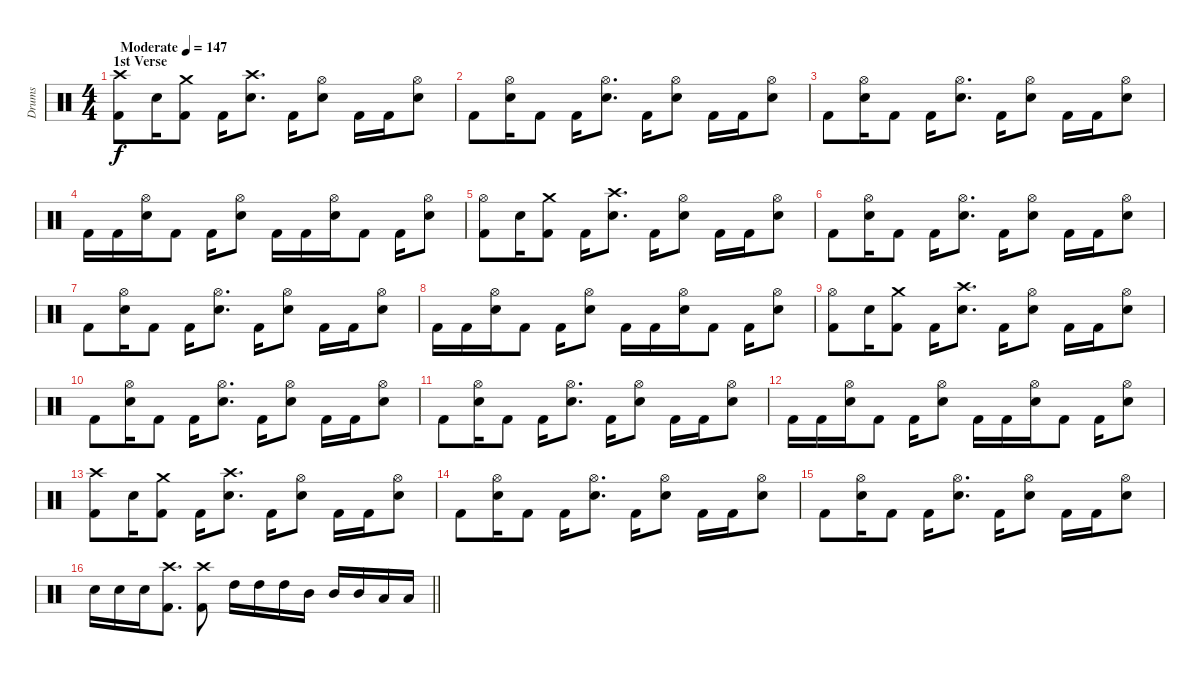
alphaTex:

\track ("Drums" "Drums") {instrument percussion}
\staff {score}
\articulation defaults
\ts (4 4)
\section ("" "1st Verse")
\tempo (147 "Moderate")
\clef neutral
\ks c
("Crash high (hit)" "Kick (hit) 2").8{dy f} "Snare (hit) 2".16 ("Crash medium (hit)" "Kick (hit) 2").8 "Kick (hit) 2".16 ("Crash high (hit)" "Snare (hit) 2").8{d} "Kick (hit) 2".16 ("Hi-Hat (open)" "Snare (hit) 2").8 "Kick (hit) 2".16 "Kick (hit) 2".16 ("Hi-Hat (open)" "Snare (hit) 2").8 |
"Kick (hit) 2".8 ("Hi-Hat (open)" "Snare (hit) 2").16 "Kick (hit) 2".8 "Kick (hit) 2".16 ("Hi-Hat (open)" "Snare (hit) 2").8{d} "Kick (hit) 2".16 ("Hi-Hat (open)" "Snare (hit) 2").8 "Kick (hit) 2".16 "Kick (hit) 2".16 ("Hi-Hat (open)" "Snare (hit) 2").8 |
"Kick (hit) 2".8 ("Hi-Hat (open)" "Snare (hit) 2").16 "Kick (hit) 2".8 "Kick (hit) 2".16 ("Hi-Hat (open)" "Snare (hit) 2").8{d} "Kick (hit) 2".16 ("Hi-Hat (open)" "Snare (hit) 2").8 "Kick (hit) 2".16 "Kick (hit) 2".16 ("Hi-Hat (open)" "Snare (hit) 2").8 |
"Kick (hit) 2".16 "Kick (hit) 2".16 ("Hi-Hat (open)" "Snare (hit) 2").16 "Kick (hit) 2".8 "Kick (hit) 2".16 ("Hi-Hat (open)" "Snare (hit) 2").8 "Kick (hit) 2".16 "Kick (hit) 2".16 ("Hi-Hat (open)" "Snare (hit) 2").16 "Kick (hit) 2".8 "Kick (hit) 2".16 ("Hi-Hat (open)" "Snare (hit) 2").8 |
("Hi-Hat (open)" "Kick (hit) 2").8 "Snare (hit) 2".16 ("Crash medium (hit)" "Kick (hit) 2").8 "Kick (hit) 2".16 ("Crash high (hit)" "Snare (hit) 2").8{d} "Kick (hit) 2".16 ("Hi-Hat (open)" "Snare (hit) 2").8 "Kick (hit) 2".16 "Kick (hit) 2".16 ("Hi-Hat (open)" "Snare (hit) 2").8 |
"Kick (hit) 2".8 ("Hi-Hat (open)" "Snare (hit) 2").16 "Kick (hit) 2".8 "Kick (hit) 2".16 ("Hi-Hat (open)" "Snare (hit) 2").8{d} "Kick (hit) 2".16 ("Hi-Hat (open)" "Snare (hit) 2").8 "Kick (hit) 2".16 "Kick (hit) 2".16 ("Hi-Hat (open)" "Snare (hit) 2").8 |
"Kick (hit) 2".8 ("Hi-Hat (open)" "Snare (hit) 2").16 "Kick (hit) 2".8 "Kick (hit) 2".16 ("Hi-Hat (open)" "Snare (hit) 2").8{d} "Kick (hit) 2".16 ("Hi-Hat (open)" "Snare (hit) 2").8 "Kick (hit) 2".16 "Kick (hit) 2".16 ("Hi-Hat (open)" "Snare (hit) 2").8 |
"Kick (hit) 2".16 "Kick (hit) 2".16 ("Hi-Hat (open)" "Snare (hit) 2").16 "Kick (hit) 2".8 "Kick (hit) 2".16 ("Hi-Hat (open)" "Snare (hit) 2").8 "Kick (hit) 2".16 "Kick (hit) 2".16 ("Hi-Hat (open)" "Snare (hit) 2").16 "Kick (hit) 2".8 "Kick (hit) 2".16 ("Hi-Hat (open)" "Snare (hit) 2").8 |
("Hi-Hat (open)" "Kick (hit) 2").8 "Snare (hit) 2".16 ("Crash medium (hit)" "Kick (hit) 2").8 "Kick (hit) 2".16 ("Crash high (hit)" "Snare (hit) 2").8{d} "Kick (hit) 2".16 ("Hi-Hat (open)" "Snare (hit) 2").8 "Kick (hit) 2".16 "Kick (hit) 2".16 ("Hi-Hat (open)" "Snare (hit) 2").8 |
"Kick (hit) 2".8 ("Hi-Hat (open)" "Snare (hit) 2").16 "Kick (hit) 2".8 "Kick (hit) 2".16 ("Hi-Hat (open)" "Snare (hit) 2").8{d} "Kick (hit) 2".16 ("Hi-Hat (open)" "Snare (hit) 2").8 "Kick (hit) 2".16 "Kick (hit) 2".16 ("Hi-Hat (open)" "Snare (hit) 2").8 |
"Kick (hit) 2".8 ("Hi-Hat (open)" "Snare (hit) 2").16 "Kick (hit) 2".8 "Kick (hit) 2".16 ("Hi-Hat (open)" "Snare (hit) 2").8{d} "Kick (hit) 2".16 ("Hi-Hat (open)" "Snare (hit) 2").8 "Kick (hit) 2".16 "Kick (hit) 2".16 ("Hi-Hat (open)" "Snare (hit) 2").8 |
"Kick (hit) 2".16 "Kick (hit) 2".16 ("Hi-Hat (open)" "Snare (hit) 2").16 "Kick (hit) 2".8 "Kick (hit) 2".16 ("Hi-Hat (open)" "Snare (hit) 2").8 "Kick (hit) 2".16 "Kick (hit) 2".16 ("Hi-Hat (open)" "Snare (hit) 2").16 "Kick (hit) 2".8 "Kick (hit) 2".16 ("Hi-Hat (open)" "Snare (hit) 2").8 |
("Crash high (hit)" "Kick (hit) 2").8 "Snare (hit) 2".16 ("Crash medium (hit)" "Kick (hit) 2").8 "Kick (hit) 2".16 ("Crash high (hit)" "Snare (hit) 2").8{d} "Kick (hit) 2".16 ("Hi-Hat (open)" "Snare (hit) 2").8 "Kick (hit) 2".16 "Kick (hit) 2".16 ("Hi-Hat (open)" "Snare (hit) 2").8 |
"Kick (hit) 2".8 ("Hi-Hat (open)" "Snare (hit) 2").16 "Kick (hit) 2".8 "Kick (hit) 2".16 ("Hi-Hat (open)" "Snare (hit) 2").8{d} "Kick (hit) 2".16 ("Hi-Hat (open)" "Snare (hit) 2").8 "Kick (hit) 2".16 "Kick (hit) 2".16 ("Hi-Hat (open)" "Snare (hit) 2").8 |
"Kick (hit) 2".8 ("Hi-Hat (open)" "Snare (hit) 2").16 "Kick (hit) 2".8 "Kick (hit) 2".16 ("Hi-Hat (open)" "Snare (hit) 2").8{d} "Kick (hit) 2".16 ("Hi-Hat (open)" "Snare (hit) 2").8 "Kick (hit) 2".16 "Kick (hit) 2".16 ("Hi-Hat (open)" "Snare (hit) 2").8 |
\barLineRight lightlight "Snare (hit) 2".16 "Snare (hit) 2".16 "Snare (hit) 2".16
("Crash high (hit)" "Kick (hit) 2").8{d} ("Crash high (hit)" "Kick (hit) 2").8 "High Tom (hit)".16 "High Tom (hit)".16 "High Tom (hit)".16 "Mid Tom (hit)".16 "Mid Tom (hit)".16 "Mid Tom (hit)".16 "Low Floor Tom (hit)".16 "Low Floor Tom (hit)".16
